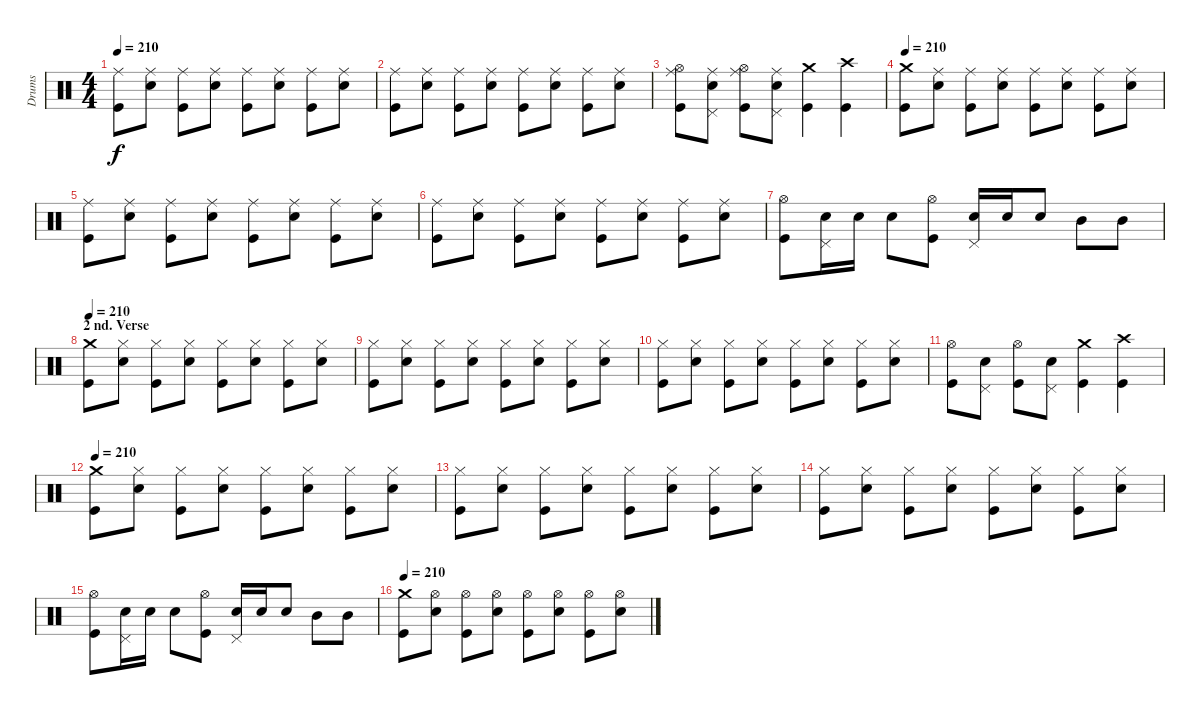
\track ("Drums" "Drums") {instrument percussion}
\staff {score}
\articulation defaults
\ts (4 4)
\tempo 210
\clef neutral
\ks c
("Ride (middle)" "Kick (hit)").8{dy f} ("Ride (middle)" "Electric Snare (hit)").8 ("Ride (middle)" "Kick (hit)").8 ("Ride (middle)" "Electric Snare (hit)").8 ("Ride (middle)" "Kick (hit)").8 ("Ride (middle)" "Electric Snare (hit)").8 ("Ride (middle)" "Kick (hit)").8 ("Ride (middle)" "Electric Snare (hit)").8 |
("Ride (middle)" "Kick (hit)").8 ("Ride (middle)" "Electric Snare (hit)").8 ("Ride (middle)" "Kick (hit)").8 ("Ride (middle)" "Electric Snare (hit)").8 ("Ride (middle)" "Kick (hit)").8 ("Ride (middle)" "Electric Snare (hit)").8 ("Ride (middle)" "Kick (hit)").8 ("Ride (middle)" "Electric Snare (hit)").8 |
("Ride (middle)" "Hi-Hat (open)" "Kick (hit)").8 ("Ride (middle)" "Pedal Hi-Hat (hit)" "Electric Snare (hit)").8 ("Ride (middle)" "Hi-Hat (open)" "Kick (hit)").8 ("Ride (middle)" "Pedal Hi-Hat (hit)" "Electric Snare (hit)").8 ("Crash medium (hit)" "Kick (hit)").4 ("Crash high (hit)" "Kick (hit)").4 |
\tempo 210
("Crash medium (hit)" "Kick (hit)").8 ("Ride (middle)" "Electric Snare (hit)").8 ("Ride (middle)" "Kick (hit)").8 ("Ride (middle)" "Electric Snare (hit)").8 ("Ride (middle)" "Kick (hit)").8 ("Ride (middle)" "Electric Snare (hit)").8 ("Ride (middle)" "Kick (hit)").8 ("Ride (middle)" "Electric Snare (hit)").8 |
("Ride (middle)" "Kick (hit)").8 ("Ride (middle)" "Electric Snare (hit)").8 ("Ride (middle)" "Kick (hit)").8 ("Ride (middle)" "Electric Snare (hit)").8 ("Ride (middle)" "Kick (hit)").8 ("Ride (middle)" "Electric Snare (hit)").8 ("Ride (middle)" "Kick (hit)").8 ("Ride (middle)" "Electric Snare (hit)").8 |
("Ride (middle)" "Kick (hit)").8 ("Ride (middle)" "Electric Snare (hit)").8 ("Ride (middle)" "Kick (hit)").8 ("Ride (middle)" "Electric Snare (hit)").8 ("Ride (middle)" "Kick (hit)").8 ("Ride (middle)" "Electric Snare (hit)").8 ("Ride (middle)" "Kick (hit)").8 ("Ride (middle)" "Electric Snare (hit)").8 |
("Hi-Hat (open)" "Kick (hit)").8 ("Pedal Hi-Hat (hit)" "Electric Snare (hit)").16 "Electric Snare (hit)".16 "Electric Snare (hit)".8 ("Hi-Hat (open)" "Kick (hit)").8 ("Pedal Hi-Hat (hit)" "Electric Snare (hit)").16 "Electric Snare (hit)".16 "Electric Snare (hit)".8 "Mid Tom (hit)".8 "Mid Tom (hit)".8 |
\section ("" "2 nd. Verse")
\tempo 210
("Crash medium (hit)" "Kick (hit)").8 ("Hi-Hat (closed)" "Electric Snare (hit)").8 ("Hi-Hat (closed)" "Kick (hit)").8 ("Hi-Hat (closed)" "Electric Snare (hit)").8 ("Hi-Hat (closed)" "Kick (hit)").8 ("Hi-Hat (closed)" "Electric Snare (hit)").8 ("Hi-Hat (closed)" "Kick (hit)").8 ("Hi-Hat (closed)" "Electric Snare (hit)").8 |
("Hi-Hat (closed)" "Kick (hit)").8 ("Hi-Hat (closed)" "Electric Snare (hit)").8 ("Hi-Hat (closed)" "Kick (hit)").8 ("Hi-Hat (closed)" "Electric Snare (hit)").8 ("Hi-Hat (closed)" "Kick (hit)").8 ("Hi-Hat (closed)" "Electric Snare (hit)").8 ("Hi-Hat (closed)" "Kick (hit)").8 ("Hi-Hat (closed)" "Electric Snare (hit)").8 |
("Hi-Hat (closed)" "Kick (hit)").8 ("Hi-Hat (closed)" "Electric Snare (hit)").8 ("Hi-Hat (closed)" "Kick (hit)").8 ("Hi-Hat (closed)" "Electric Snare (hit)").8 ("Hi-Hat (closed)" "Kick (hit)").8 ("Hi-Hat (closed)" "Electric Snare (hit)").8 ("Hi-Hat (closed)" "Kick (hit)").8 ("Hi-Hat (closed)" "Electric Snare (hit)").8 |
("Hi-Hat (open)" "Kick (hit)").8 ("Pedal Hi-Hat (hit)" "Electric Snare (hit)").8 ("Hi-Hat (open)" "Kick (hit)").8 ("Pedal Hi-Hat (hit)" "Electric Snare (hit)").8 ("Crash medium (hit)" "Kick (hit)").4 ("Crash high (hit)" "Kick (hit)").4 |
\tempo 210
("Crash medium (hit)" "Kick (hit)").8 ("Hi-Hat (closed)" "Electric Snare (hit)").8 ("Hi-Hat (closed)" "Kick (hit)").8 ("Hi-Hat (closed)" "Electric Snare (hit)").8 ("Hi-Hat (closed)" "Kick (hit)").8 ("Hi-Hat (closed)" "Electric Snare (hit)").8 ("Hi-Hat (closed)" "Kick (hit)").8 ("Hi-Hat (closed)" "Electric Snare (hit)").8 |
("Hi-Hat (closed)" "Kick (hit)").8 ("Hi-Hat (closed)" "Electric Snare (hit)").8 ("Hi-Hat (closed)" "Kick (hit)").8 ("Hi-Hat (closed)" "Electric Snare (hit)").8 ("Hi-Hat (closed)" "Kick (hit)").8 ("Hi-Hat (closed)" "Electric Snare (hit)").8 ("Hi-Hat (closed)" "Kick (hit)").8 ("Hi-Hat (closed)" "Electric Snare (hit)").8 |
("Hi-Hat (closed)" "Kick (hit)").8 ("Hi-Hat (closed)" "Electric Snare (hit)").8 ("Hi-Hat (closed)" "Kick (hit)").8 ("Hi-Hat (closed)" "Electric Snare (hit)").8 ("Hi-Hat (closed)" "Kick (hit)").8 ("Hi-Hat (closed)" "Electric Snare (hit)").8 ("Hi-Hat (closed)" "Kick (hit)").8 ("Hi-Hat (closed)" "Electric Snare (hit)").8 |
("Hi-Hat (open)" "Kick (hit)").8 ("Pedal Hi-Hat (hit)" "Electric Snare (hit)").16 "Electric Snare (hit)".16 "Electric Snare (hit)".8 ("Hi-Hat (open)" "Kick (hit)").8 ("Pedal Hi-Hat (hit)" "Electric Snare (hit)").16 "Electric Snare (hit)".16 "Electric Snare (hit)".8 "Mid Tom (hit)".8 "Mid Tom (hit)".8 |
\tempo 210
("Crash medium (hit)" "Kick (hit)").8 ("Hi-Hat (open)" "Electric Snare (hit)").8 ("Hi-Hat (open)" "Kick (hit)").8 ("Hi-Hat (open)" "Electric Snare (hit)").8 ("Hi-Hat (open)" "Kick (hit)").8 ("Hi-Hat (open)" "Electric Snare (hit)").8 ("Hi-Hat (open)" "Kick (hit)").8 ("Hi-Hat (open)" "Electric Snare (hit)").8
